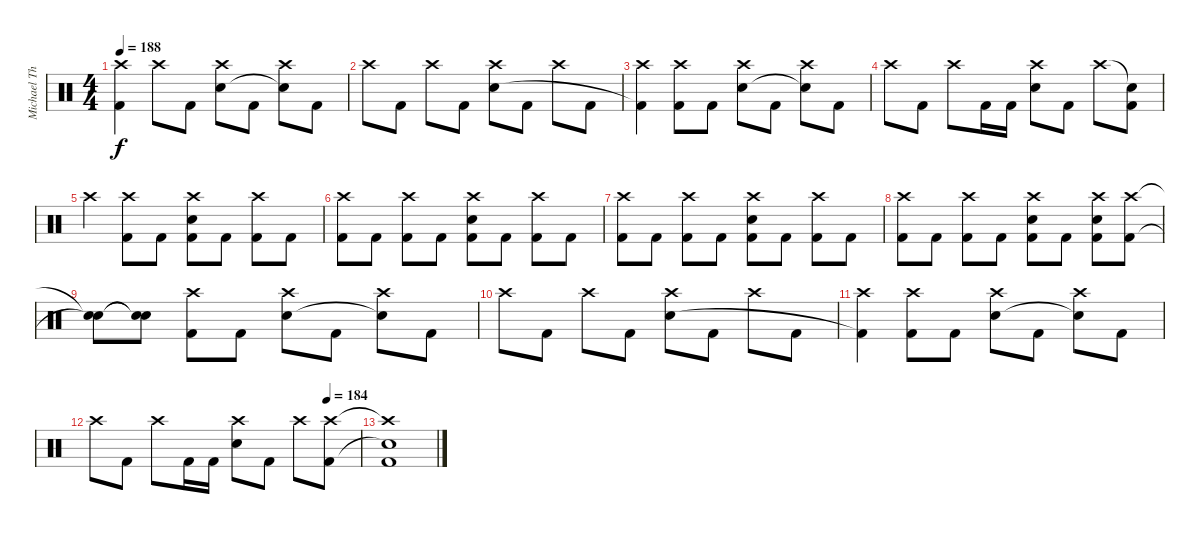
\track ("Michael Thomas" "Michael Th") {instrument percussion}
\staff {score}
\articulation defaults
\ts (4 4)
\tempo 188
\clef neutral
\ks c
("Crash high (hit)" "Kick (hit) 2").4{dy f} "Crash high (hit)".8 "Kick (hit) 2".8 ("Crash high (hit)" "Electric Snare (hit)").8 "Kick (hit) 2".8 ("Crash high (hit)" "Snare (hit)"{t}).8 "Kick (hit) 2".8 |
"Crash high (hit)".8 "Kick (hit) 2".8 "Crash high (hit)".8 "Kick (hit) 2".8 ("Crash high (hit)" "Electric Snare (hit)").8 "Kick (hit) 2".8 "Crash high (hit)".8 "Kick (hit) 2".8 |
("Crash high (hit)" "Kick (hit) 2"{t}).4 ("Crash high (hit)" "Kick (hit) 2").8 "Kick (hit) 2".8 ("Crash high (hit)" "Electric Snare (hit)").8 "Kick (hit) 2".8 ("Crash high (hit)" "Snare (hit)"{t}).8 "Kick (hit) 2".8 |
"Crash high (hit)".8 "Kick (hit) 2".8 "Crash high (hit)".8 "Kick (hit) 2".16 "Kick (hit) 2".16 ("Crash high (hit)" "Electric Snare (hit)").8 "Kick (hit) 2".8 "Crash high (hit)".8 ("Snare (hit)"{t} "Kick (hit) 2").8 |
"Crash high (hit)".4 ("Crash high (hit)" "Kick (hit) 2").8 "Kick (hit) 2".8 ("Crash high (hit)" "Electric Snare (hit)" "Kick (hit) 2").8 "Kick (hit) 2".8 ("Crash high (hit)" "Kick (hit) 2").8 "Kick (hit) 2".8 |
("Crash high (hit)" "Kick (hit) 2").8 "Kick (hit) 2".8 ("Crash high (hit)" "Kick (hit) 2").8 "Kick (hit) 2".8 ("Crash high (hit)" "Electric Snare (hit)" "Kick (hit) 2").8 "Kick (hit) 2".8 ("Crash high (hit)" "Kick (hit) 2").8 "Kick (hit) 2".8 |
("Crash high (hit)" "Kick (hit) 2").8 "Kick (hit) 2".8 ("Crash high (hit)" "Kick (hit) 2").8 "Kick (hit) 2".8 ("Crash high (hit)" "Electric Snare (hit)" "Kick (hit) 2").8 "Kick (hit) 2".8 ("Crash high (hit)" "Kick (hit) 2").8 "Kick (hit) 2".8 |
("Crash high (hit)" "Kick (hit) 2").8 "Kick (hit) 2".8 ("Crash high (hit)" "Kick (hit) 2").8 "Kick (hit) 2".8 ("Crash high (hit)" "Electric Snare (hit)" "Kick (hit) 2").8 "Kick (hit) 2".8 ("Crash high (hit)" "Electric Snare (hit)" "Kick (hit) 2").8 ("Crash high (hit)" "Kick (hit) 2").8 |
("Snare (hit)"{t} "Snare (hit)"{t}).8 ("Snare (hit)"{t} "Snare (hit)"{t}).8 ("Crash high (hit)" "Kick (hit) 2").8 "Kick (hit) 2".8 ("Crash high (hit)" "Electric Snare (hit)").8 "Kick (hit) 2".8 ("Crash high (hit)" "Snare (hit)"{t}).8 "Kick (hit) 2".8 |
"Crash high (hit)".8 "Kick (hit) 2".8 "Crash high (hit)".8 "Kick (hit) 2".8 ("Crash high (hit)" "Electric Snare (hit)").8 "Kick (hit) 2".8 "Crash high (hit)".8 "Kick (hit) 2".8 |
("Crash high (hit)" "Kick (hit) 2"{t}).4 ("Crash high (hit)" "Kick (hit) 2").8 "Kick (hit) 2".8 ("Crash high (hit)" "Electric Snare (hit)").8 "Kick (hit) 2".8 ("Crash high (hit)" "Snare (hit)"{t}).8 "Kick (hit) 2".8 |
\tempo (184 0.875)
"Crash high (hit)".8 "Kick (hit) 2".8 "Crash high (hit)".8 "Kick (hit) 2".16 "Kick (hit) 2".16 ("Crash high (hit)" "Electric Snare (hit)").8 "Kick (hit) 2".8 "Crash high (hit)".8 ("Crash high (hit)" "Kick (hit) 2").8 |
("Crash high (hit)"{t} "Snare (hit)"{t} "Kick (hit) 2").1
